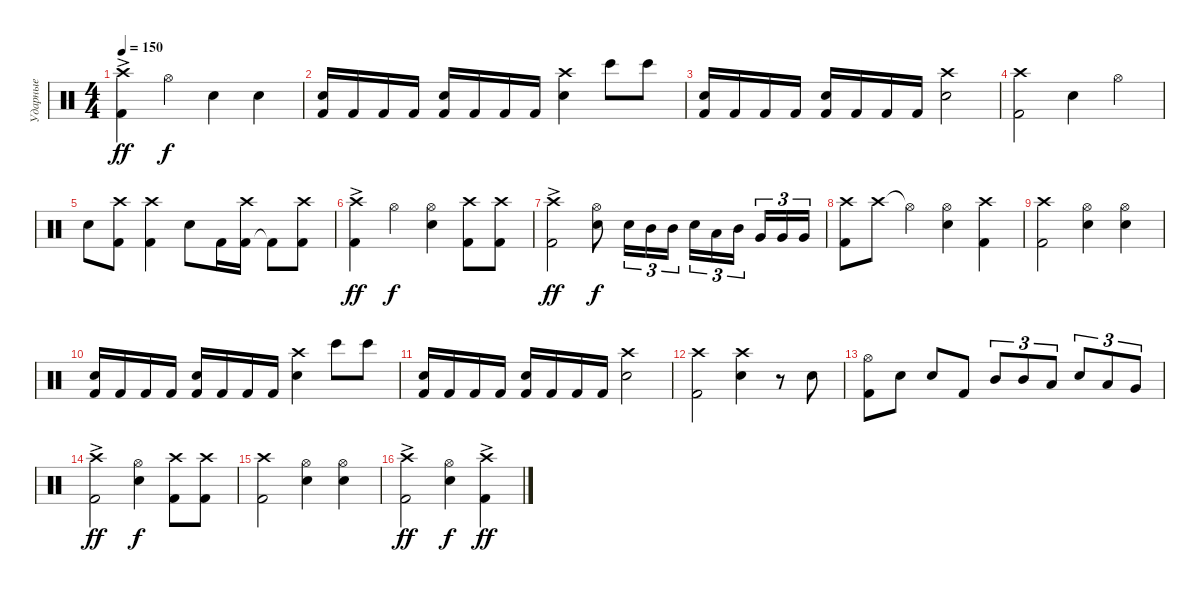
\track ("Ударные" "Ударные") {instrument percussion}
\staff
\articulation defaults
\ts (4 4)
\tempo 150
\clef neutral
\ks c
("Kick (hit) 2" "Crash high (hit)"{ac}).4{dy ff} "Hi-Hat (open)".4{dy f} "Snare (hit) 2".4 "Snare (hit) 2".4 |
("Kick (hit) 2" "Snare (hit) 2").16 "Kick (hit) 2".16 "Kick (hit) 2".16 "Kick (hit) 2".16 ("Kick (hit) 2" "Snare (hit) 2").16 "Kick (hit) 2".16 "Kick (hit) 2".16 "Kick (hit) 2".16 ("Snare (hit) 2" "Crash high (hit)").4 "Bongo High (hit)".8 "Bongo High (hit)".8 |
("Kick (hit) 2" "Snare (hit) 2").16 "Kick (hit) 2".16 "Kick (hit) 2".16 "Kick (hit) 2".16 ("Kick (hit) 2" "Snare (hit) 2").16 "Kick (hit) 2".16 "Kick (hit) 2".16 "Kick (hit) 2".16 ("Snare (hit) 2" "Crash high (hit)").2 |
("Kick (hit) 2" "Crash high (hit)").2 "Snare (hit) 2".4 "Hi-Hat (open)".4 |
"Snare (hit) 2".8 ("Kick (hit) 2" "Crash high (hit)").8 ("Kick (hit) 2" "Crash high (hit)").4 "Snare (hit) 2".8 "Kick (hit) 2".16 ("Kick (hit) 2" "Crash high (hit)").16 "Kick (hit) 2"{t}.8 ("Kick (hit) 2" "Crash high (hit)").8 |
("Kick (hit) 2" "Crash high (hit)"{ac}).4{dy ff} "Hi-Hat (open)".4{dy f} ("Snare (hit) 2" "Hi-Hat (open)").4 ("Kick (hit) 2" "Crash high (hit)").8 ("Kick (hit) 2" "Crash high (hit)").8 |
("Kick (hit) 2" "Crash high (hit)"{ac}).2{dy ff} ("Snare (hit) 2" "Hi-Hat (open)").8{dy f} "Electric Snare (hit)".16{tu (3 2)} "Mid Tom (hit)".16{tu (3 2)} "Mid Tom (hit)".16{tu (3 2)} "Electric Snare (hit)".16{tu (3 2)} "Low Tom (hit)".16{tu (3 2)} "Mid Tom (hit)".16{tu (3 2) beam splitsecondary} "Very Low Tom (hit)".16{tu (3 2)} "Very Low Tom (hit)".16{tu (3 2)} "Very Low Tom (hit)".16{tu (3 2)} |
("Kick (hit) 2" "Crash high (hit)").8 "Crash high (hit)".8 "Hi-Hat (open)"{t}.4 ("Snare (hit) 2" "Hi-Hat (open)").4 ("Kick (hit) 2" "Crash high (hit)").4 |
("Kick (hit) 2" "Crash high (hit)").2 ("Snare (hit) 2" "Hi-Hat (open)").4 ("Snare (hit) 2" "Hi-Hat (open)").4 |
("Kick (hit) 2" "Snare (hit) 2").16 "Kick (hit) 2".16 "Kick (hit) 2".16 "Kick (hit) 2".16 ("Kick (hit) 2" "Snare (hit) 2").16 "Kick (hit) 2".16 "Kick (hit) 2".16 "Kick (hit) 2".16 ("Snare (hit) 2" "Crash high (hit)").4 "Bongo High (hit)".8 "Bongo High (hit)".8 |
("Kick (hit) 2" "Snare (hit) 2").16 "Kick (hit) 2".16 "Kick (hit) 2".16 "Kick (hit) 2".16 ("Kick (hit) 2" "Snare (hit) 2").16 "Kick (hit) 2".16 "Kick (hit) 2".16 "Kick (hit) 2".16 ("Snare (hit) 2" "Crash high (hit)").2 |
("Kick (hit) 2" "Crash high (hit)").2 ("Snare (hit) 2" "Crash high (hit)").4 r.8 "Snare (hit) 2".8 |
("Kick (hit) 2" "Hi-Hat (open)").8 "Snare (hit) 2".8 "Snare (hit) 2".8 "Kick (hit) 2".8 "Mid Tom (hit)".8{tu (3 2)} "Mid Tom (hit)".8{tu (3 2)} "Low Tom (hit)".8{tu (3 2)} "Snare (hit) 2".8{tu (3 2)} "Low Tom (hit)".8{tu (3 2)} "Very Low Tom (hit)".8{tu (3 2)} |
("Kick (hit) 2" "Crash high (hit)"{ac}).2{dy ff} ("Snare (hit) 2" "Hi-Hat (open)").4{dy f} ("Kick (hit) 2" "Crash high (hit)").8 ("Kick (hit) 2" "Crash high (hit)").8 |
("Kick (hit) 2" "Crash high (hit)").2 ("Snare (hit) 2" "Hi-Hat (open)").4 ("Snare (hit) 2" "Hi-Hat (open)").4 |
("Kick (hit) 2" "Crash high (hit)"{ac}).2{dy ff} ("Snare (hit) 2" "Hi-Hat (open)").4{dy f} ("Kick (hit) 2" "Crash high (hit)"{ac}).4{dy ff}
